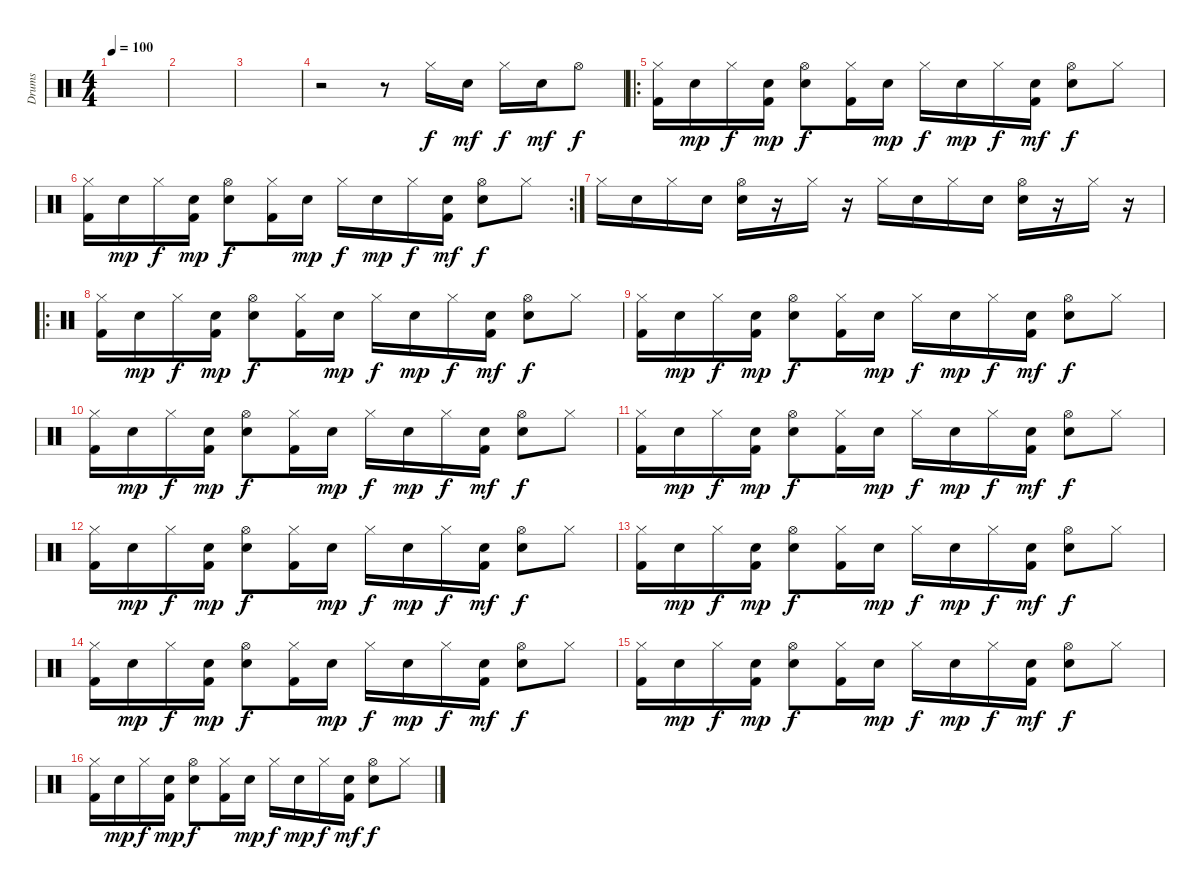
\track ("Drums" "Drums") {instrument percussion}
\staff {score}
\articulation defaults
\ts (4 4)
\tempo 100
\clef neutral
\ks c
|
|
|
r.2 r.8 "Hi-Hat (closed)".16 "Snare (hit) 2".16{dy mf} "Hi-Hat (closed)".16{dy f} "Snare (hit) 2".16{dy mf} "Hi-Hat (open)".8{dy f} |
\ro
("Hi-Hat (closed)" "Kick (hit) 2").16 "Snare (hit) 2".16{dy mp} "Hi-Hat (closed)".16{dy f} ("Snare (hit) 2" "Kick (hit) 2").16{dy mp} ("Hi-Hat (open)" "Snare (hit) 2").8{dy f} ("Hi-Hat (closed)" "Kick (hit) 2").16 "Snare (hit) 2".16{dy mp} "Hi-Hat (closed)".16{dy f} "Snare (hit) 2".16{dy mp} "Hi-Hat (closed)".16{dy f} ("Snare (hit) 2" "Kick (hit) 2").16{dy mf} ("Hi-Hat (open)" "Snare (hit) 2").8{dy f} "Hi-Hat (closed)".8 |
\rc 2
("Hi-Hat (closed)" "Kick (hit) 2").16 "Snare (hit) 2".16{dy mp} "Hi-Hat (closed)".16{dy f} ("Snare (hit) 2" "Kick (hit) 2").16{dy mp} ("Hi-Hat (open)" "Snare (hit) 2").8{dy f} ("Hi-Hat (closed)" "Kick (hit) 2").16 "Snare (hit) 2".16{dy mp} "Hi-Hat (closed)".16{dy f} "Snare (hit) 2".16{dy mp} "Hi-Hat (closed)".16{dy f} ("Snare (hit) 2" "Kick (hit) 2").16{dy mf} ("Hi-Hat (open)" "Snare (hit) 2").8{dy f} "Hi-Hat (closed)".8 |
"Hi-Hat (closed)".16 "Snare (hit) 2".16 "Hi-Hat (closed)".16 "Snare (hit) 2".16 ("Hi-Hat (open)" "Snare (hit) 2").16 r.16 "Hi-Hat (closed)".16 r.16 "Hi-Hat (closed)".16 "Snare (hit) 2".16 "Hi-Hat (closed)".16 "Snare (hit) 2".16 ("Hi-Hat (open)" "Snare (hit) 2").16 r.16 "Hi-Hat (closed)".16 r.16 |
\ro
("Hi-Hat (closed)" "Kick (hit) 2").16 "Snare (hit) 2".16{dy mp} "Hi-Hat (closed)".16{dy f} ("Snare (hit) 2" "Kick (hit) 2").16{dy mp} ("Hi-Hat (open)" "Snare (hit) 2").8{dy f} ("Hi-Hat (closed)" "Kick (hit) 2").16 "Snare (hit) 2".16{dy mp} "Hi-Hat (closed)".16{dy f} "Snare (hit) 2".16{dy mp} "Hi-Hat (closed)".16{dy f} ("Snare (hit) 2" "Kick (hit) 2").16{dy mf} ("Hi-Hat (open)" "Snare (hit) 2").8{dy f} "Hi-Hat (closed)".8 |
("Hi-Hat (closed)" "Kick (hit) 2").16 "Snare (hit) 2".16{dy mp} "Hi-Hat (closed)".16{dy f} ("Snare (hit) 2" "Kick (hit) 2").16{dy mp} ("Hi-Hat (open)" "Snare (hit) 2").8{dy f} ("Hi-Hat (closed)" "Kick (hit) 2").16 "Snare (hit) 2".16{dy mp} "Hi-Hat (closed)".16{dy f} "Snare (hit) 2".16{dy mp} "Hi-Hat (closed)".16{dy f} ("Snare (hit) 2" "Kick (hit) 2").16{dy mf} ("Hi-Hat (open)" "Snare (hit) 2").8{dy f} "Hi-Hat (closed)".8 |
("Hi-Hat (closed)" "Kick (hit) 2").16 "Snare (hit) 2".16{dy mp} "Hi-Hat (closed)".16{dy f} ("Snare (hit) 2" "Kick (hit) 2").16{dy mp} ("Hi-Hat (open)" "Snare (hit) 2").8{dy f} ("Hi-Hat (closed)" "Kick (hit) 2").16 "Snare (hit) 2".16{dy mp} "Hi-Hat (closed)".16{dy f} "Snare (hit) 2".16{dy mp} "Hi-Hat (closed)".16{dy f} ("Snare (hit) 2" "Kick (hit) 2").16{dy mf} ("Hi-Hat (open)" "Snare (hit) 2").8{dy f} "Hi-Hat (closed)".8 |
("Hi-Hat (closed)" "Kick (hit) 2").16 "Snare (hit) 2".16{dy mp} "Hi-Hat (closed)".16{dy f} ("Snare (hit) 2" "Kick (hit) 2").16{dy mp} ("Hi-Hat (open)" "Snare (hit) 2").8{dy f} ("Hi-Hat (closed)" "Kick (hit) 2").16 "Snare (hit) 2".16{dy mp} "Hi-Hat (closed)".16{dy f} "Snare (hit) 2".16{dy mp} "Hi-Hat (closed)".16{dy f} ("Snare (hit) 2" "Kick (hit) 2").16{dy mf} ("Hi-Hat (open)" "Snare (hit) 2").8{dy f} "Hi-Hat (closed)".8 |
("Hi-Hat (closed)" "Kick (hit) 2").16 "Snare (hit) 2".16{dy mp} "Hi-Hat (closed)".16{dy f} ("Snare (hit) 2" "Kick (hit) 2").16{dy mp} ("Hi-Hat (open)" "Snare (hit) 2").8{dy f} ("Hi-Hat (closed)" "Kick (hit) 2").16 "Snare (hit) 2".16{dy mp} "Hi-Hat (closed)".16{dy f} "Snare (hit) 2".16{dy mp} "Hi-Hat (closed)".16{dy f} ("Snare (hit) 2" "Kick (hit) 2").16{dy mf} ("Hi-Hat (open)" "Snare (hit) 2").8{dy f} "Hi-Hat (closed)".8 |
("Hi-Hat (closed)" "Kick (hit) 2").16 "Snare (hit) 2".16{dy mp} "Hi-Hat (closed)".16{dy f} ("Snare (hit) 2" "Kick (hit) 2").16{dy mp} ("Hi-Hat (open)" "Snare (hit) 2").8{dy f} ("Hi-Hat (closed)" "Kick (hit) 2").16 "Snare (hit) 2".16{dy mp} "Hi-Hat (closed)".16{dy f} "Snare (hit) 2".16{dy mp} "Hi-Hat (closed)".16{dy f} ("Snare (hit) 2" "Kick (hit) 2").16{dy mf} ("Hi-Hat (open)" "Snare (hit) 2").8{dy f} "Hi-Hat (closed)".8 |
("Hi-Hat (closed)" "Kick (hit) 2").16 "Snare (hit) 2".16{dy mp} "Hi-Hat (closed)".16{dy f} ("Snare (hit) 2" "Kick (hit) 2").16{dy mp} ("Hi-Hat (open)" "Snare (hit) 2").8{dy f} ("Hi-Hat (closed)" "Kick (hit) 2").16 "Snare (hit) 2".16{dy mp} "Hi-Hat (closed)".16{dy f} "Snare (hit) 2".16{dy mp} "Hi-Hat (closed)".16{dy f} ("Snare (hit) 2" "Kick (hit) 2").16{dy mf} ("Hi-Hat (open)" "Snare (hit) 2").8{dy f} "Hi-Hat (closed)".8 |
("Hi-Hat (closed)" "Kick (hit) 2").16 "Snare (hit) 2".16{dy mp} "Hi-Hat (closed)".16{dy f} ("Snare (hit) 2" "Kick (hit) 2").16{dy mp} ("Hi-Hat (open)" "Snare (hit) 2").8{dy f} ("Hi-Hat (closed)" "Kick (hit) 2").16 "Snare (hit) 2".16{dy mp} "Hi-Hat (closed)".16{dy f} "Snare (hit) 2".16{dy mp} "Hi-Hat (closed)".16{dy f} ("Snare (hit) 2" "Kick (hit) 2").16{dy mf} ("Hi-Hat (open)" "Snare (hit) 2").8{dy f} "Hi-Hat (closed)".8 |
("Hi-Hat (closed)" "Kick (hit) 2").16 "Snare (hit) 2".16{dy mp} "Hi-Hat (closed)".16{dy f} ("Snare (hit) 2" "Kick (hit) 2").16{dy mp} ("Hi-Hat (open)" "Snare (hit) 2").8{dy f} ("Hi-Hat (closed)" "Kick (hit) 2").16 "Snare (hit) 2".16{dy mp} "Hi-Hat (closed)".16{dy f} "Snare (hit) 2".16{dy mp} "Hi-Hat (closed)".16{dy f} ("Snare (hit) 2" "Kick (hit) 2").16{dy mf} ("Hi-Hat (open)" "Snare (hit) 2").8{dy f} "Hi-Hat (closed)".8
